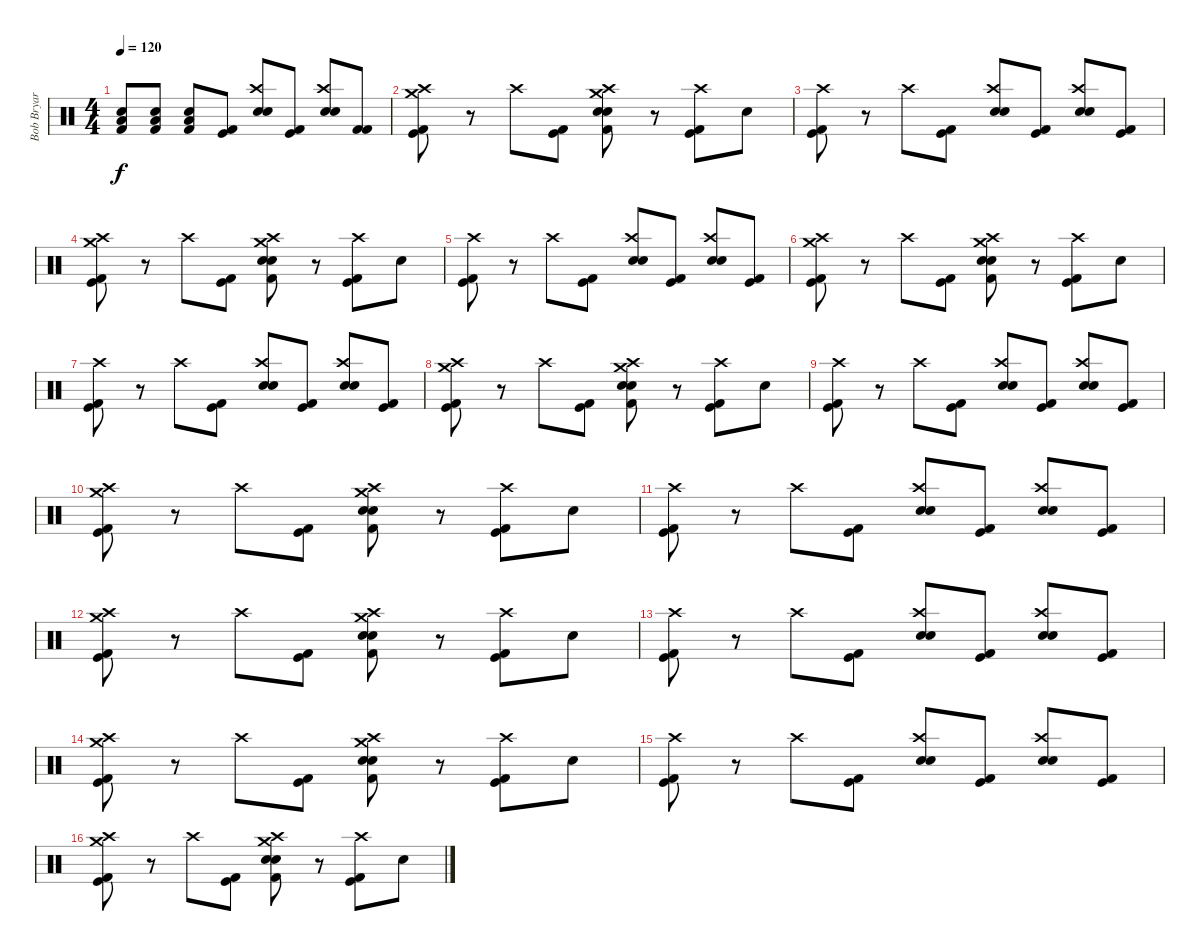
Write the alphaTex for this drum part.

\track ("Bob Bryar" "Bob Bryar") {instrument percussion}
\staff {score}
\articulation defaults
\ts (4 4)
\tempo 120
\clef neutral
\ks c
("Snare (hit) 2" "Low Tom (hit)" "Kick (hit) 2").8{dy f volume 10} ("Snare (hit) 2" "Low Tom (hit)" "Kick (hit) 2").8{volume 11} ("Snare (hit) 2" "Low Tom (hit)" "Kick (hit) 2").8{volume 12} ("Kick (hit)" "Kick (hit) 2").8{volume 13} ("Crash high (hit)" "Electric Snare (hit)" "Snare (hit) 2").8 ("Kick (hit)" "Kick (hit) 2").8 ("Crash high (hit)" "Electric Snare (hit)" "Snare (hit) 2").8 ("Kick (hit) 2" "Kick (hit) 2").8 |
("Crash high (hit)" "Crash medium (hit)" "Kick (hit)" "Kick (hit) 2").8 r.8 "Crash high (hit)".8 ("Kick (hit)" "Kick (hit) 2").8 ("Crash high (hit)" "Crash medium (hit)" "Electric Snare (hit)" "Snare (hit) 2" "Kick (hit) 2").8 r.8 ("Crash high (hit)" "Kick (hit)" "Kick (hit) 2").8 "Snare (hit) 2".8 |
("Crash high (hit)" "Kick (hit)" "Kick (hit) 2").8 r.8 "Crash high (hit)".8 ("Kick (hit)" "Kick (hit) 2").8 ("Crash high (hit)" "Electric Snare (hit)" "Snare (hit) 2").8 ("Kick (hit)" "Kick (hit) 2").8 ("Crash high (hit)" "Electric Snare (hit)" "Snare (hit) 2").8 ("Kick (hit)" "Kick (hit) 2").8 |
("Crash high (hit)" "Crash medium (hit)" "Kick (hit)" "Kick (hit) 2").8 r.8 "Crash high (hit)".8 ("Kick (hit)" "Kick (hit) 2").8 ("Crash high (hit)" "Crash medium (hit)" "Electric Snare (hit)" "Snare (hit) 2" "Kick (hit) 2").8 r.8 ("Crash high (hit)" "Kick (hit)" "Kick (hit) 2").8 "Snare (hit) 2".8 |
("Crash high (hit)" "Kick (hit)" "Kick (hit) 2").8 r.8 "Crash high (hit)".8 ("Kick (hit)" "Kick (hit) 2").8 ("Crash high (hit)" "Electric Snare (hit)" "Snare (hit) 2").8 ("Kick (hit)" "Kick (hit) 2").8 ("Crash high (hit)" "Electric Snare (hit)" "Snare (hit) 2").8 ("Kick (hit)" "Kick (hit) 2").8 |
("Crash high (hit)" "Crash medium (hit)" "Kick (hit)" "Kick (hit) 2").8 r.8 "Crash high (hit)".8 ("Kick (hit)" "Kick (hit) 2").8 ("Crash high (hit)" "Crash medium (hit)" "Electric Snare (hit)" "Snare (hit) 2" "Kick (hit) 2").8 r.8 ("Crash high (hit)" "Kick (hit)" "Kick (hit) 2").8 "Snare (hit) 2".8 |
("Crash high (hit)" "Kick (hit)" "Kick (hit) 2").8 r.8 "Crash high (hit)".8 ("Kick (hit)" "Kick (hit) 2").8 ("Crash high (hit)" "Electric Snare (hit)" "Snare (hit) 2").8 ("Kick (hit)" "Kick (hit) 2").8 ("Crash high (hit)" "Electric Snare (hit)" "Snare (hit) 2").8 ("Kick (hit)" "Kick (hit) 2").8 |
("Crash high (hit)" "Crash medium (hit)" "Kick (hit)" "Kick (hit) 2").8 r.8 "Crash high (hit)".8 ("Kick (hit)" "Kick (hit) 2").8 ("Crash high (hit)" "Crash medium (hit)" "Electric Snare (hit)" "Snare (hit) 2" "Kick (hit) 2").8 r.8 ("Crash high (hit)" "Kick (hit)" "Kick (hit) 2").8 "Snare (hit) 2".8 |
("Crash high (hit)" "Kick (hit)" "Kick (hit) 2").8 r.8 "Crash high (hit)".8 ("Kick (hit)" "Kick (hit) 2").8 ("Crash high (hit)" "Electric Snare (hit)" "Snare (hit) 2").8 ("Kick (hit)" "Kick (hit) 2").8 ("Crash high (hit)" "Electric Snare (hit)" "Snare (hit) 2").8 ("Kick (hit)" "Kick (hit) 2").8 |
("Crash high (hit)" "Crash medium (hit)" "Kick (hit)" "Kick (hit) 2").8 r.8 "Crash high (hit)".8 ("Kick (hit)" "Kick (hit) 2").8 ("Crash high (hit)" "Crash medium (hit)" "Electric Snare (hit)" "Snare (hit) 2" "Kick (hit) 2").8 r.8 ("Crash high (hit)" "Kick (hit)" "Kick (hit) 2").8 "Snare (hit) 2".8 |
("Crash high (hit)" "Kick (hit)" "Kick (hit) 2").8 r.8 "Crash high (hit)".8 ("Kick (hit)" "Kick (hit) 2").8 ("Crash high (hit)" "Electric Snare (hit)" "Snare (hit) 2").8 ("Kick (hit)" "Kick (hit) 2").8 ("Crash high (hit)" "Electric Snare (hit)" "Snare (hit) 2").8 ("Kick (hit)" "Kick (hit) 2").8 |
("Crash high (hit)" "Crash medium (hit)" "Kick (hit)" "Kick (hit) 2").8 r.8 "Crash high (hit)".8 ("Kick (hit)" "Kick (hit) 2").8 ("Crash high (hit)" "Crash medium (hit)" "Electric Snare (hit)" "Snare (hit) 2" "Kick (hit) 2").8 r.8 ("Crash high (hit)" "Kick (hit)" "Kick (hit) 2").8 "Snare (hit) 2".8 |
("Crash high (hit)" "Kick (hit)" "Kick (hit) 2").8 r.8 "Crash high (hit)".8 ("Kick (hit)" "Kick (hit) 2").8 ("Crash high (hit)" "Electric Snare (hit)" "Snare (hit) 2").8 ("Kick (hit)" "Kick (hit) 2").8 ("Crash high (hit)" "Electric Snare (hit)" "Snare (hit) 2").8 ("Kick (hit)" "Kick (hit) 2").8 |
("Crash high (hit)" "Crash medium (hit)" "Kick (hit)" "Kick (hit) 2").8 r.8 "Crash high (hit)".8 ("Kick (hit)" "Kick (hit) 2").8 ("Crash high (hit)" "Crash medium (hit)" "Electric Snare (hit)" "Snare (hit) 2" "Kick (hit) 2").8 r.8 ("Crash high (hit)" "Kick (hit)" "Kick (hit) 2").8 "Snare (hit) 2".8 |
("Crash high (hit)" "Kick (hit)" "Kick (hit) 2").8 r.8 "Crash high (hit)".8 ("Kick (hit)" "Kick (hit) 2").8 ("Crash high (hit)" "Electric Snare (hit)" "Snare (hit) 2").8 ("Kick (hit)" "Kick (hit) 2").8 ("Crash high (hit)" "Electric Snare (hit)" "Snare (hit) 2").8 ("Kick (hit)" "Kick (hit) 2").8 |
("Crash high (hit)" "Crash medium (hit)" "Kick (hit)" "Kick (hit) 2").8 r.8 "Crash high (hit)".8 ("Kick (hit)" "Kick (hit) 2").8 ("Crash high (hit)" "Crash medium (hit)" "Electric Snare (hit)" "Snare (hit) 2" "Kick (hit) 2").8 r.8 ("Crash high (hit)" "Kick (hit)" "Kick (hit) 2").8 "Snare (hit) 2".8
